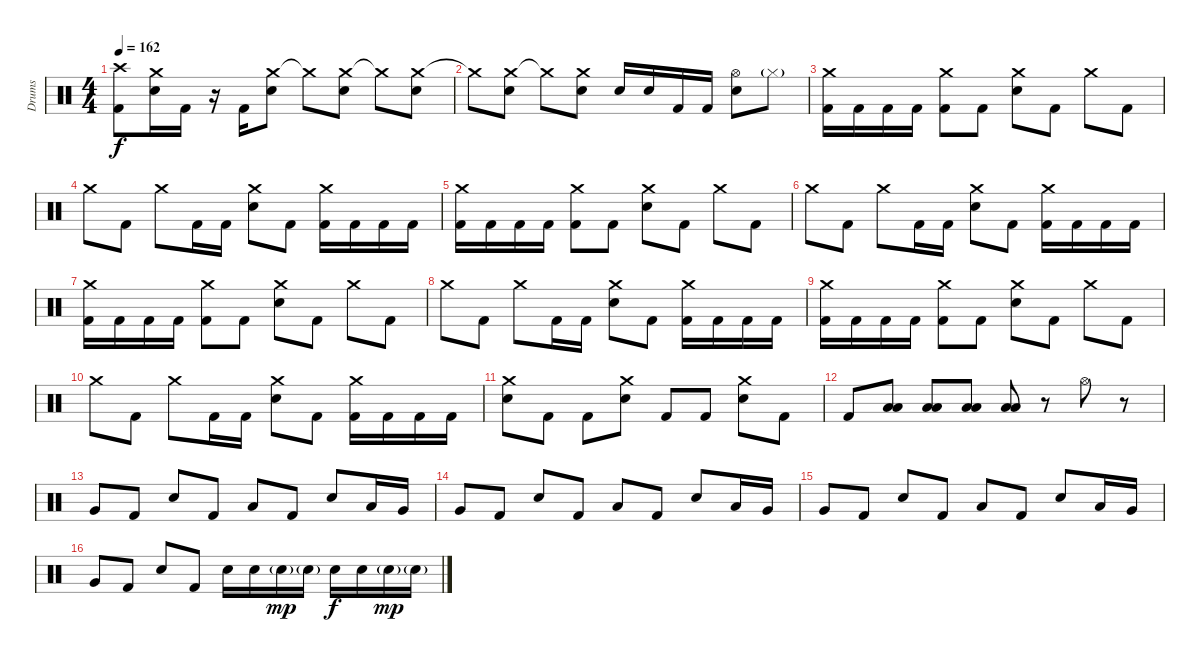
\track ("Drums" "Drums") {instrument percussion}
\staff {score}
\articulation defaults
\ts (4 4)
\tempo 162
\clef neutral
\ks c
("Crash high (hit)" "Kick (hit) 2").8{dy f} ("Crash medium (hit)" "Electric Snare (hit)").16 "Kick (hit) 2".16 r.16 "Kick (hit) 2".16 ("Crash medium (hit)" "Electric Snare (hit)").8 "Crash medium (hit)"{t}.8 ("Crash medium (hit)" "Electric Snare (hit)").8 "Crash medium (hit)"{t}.8 ("Crash medium (hit)" "Electric Snare (hit)").8 |
"Crash medium (hit)"{t}.8 ("Crash medium (hit)" "Electric Snare (hit)").8 "Crash medium (hit)"{t}.8 ("Crash medium (hit)" "Electric Snare (hit)").8 "Electric Snare (hit)".16 "Electric Snare (hit)".16 "Kick (hit) 2".16 "Kick (hit) 2".16 ("Hi-Hat (open)" "Electric Snare (hit)").8 "Hi-Hat (closed)"{g}.8 |
("Crash medium (hit)" "Kick (hit) 2").16 "Kick (hit) 2".16 "Kick (hit) 2".16 "Kick (hit) 2".16 ("Crash medium (hit)" "Kick (hit) 2").8 "Kick (hit) 2".8 ("Crash medium (hit)" "Electric Snare (hit)").8 "Kick (hit) 2".8 "Crash medium (hit)".8 "Kick (hit) 2".8 |
"Crash medium (hit)".8 "Kick (hit) 2".8 "Crash medium (hit)".8 "Kick (hit) 2".16 "Kick (hit) 2".16 ("Crash medium (hit)" "Electric Snare (hit)").8 "Kick (hit) 2".8 ("Crash medium (hit)" "Kick (hit) 2").16 "Kick (hit) 2".16 "Kick (hit) 2".16 "Kick (hit) 2".16 |
("Crash medium (hit)" "Kick (hit) 2").16 "Kick (hit) 2".16 "Kick (hit) 2".16 "Kick (hit) 2".16 ("Crash medium (hit)" "Kick (hit) 2").8 "Kick (hit) 2".8 ("Crash medium (hit)" "Electric Snare (hit)").8 "Kick (hit) 2".8 "Crash medium (hit)".8 "Kick (hit) 2".8 |
"Crash medium (hit)".8 "Kick (hit) 2".8 "Crash medium (hit)".8 "Kick (hit) 2".16 "Kick (hit) 2".16 ("Crash medium (hit)" "Electric Snare (hit)").8 "Kick (hit) 2".8 ("Crash medium (hit)" "Kick (hit) 2").16 "Kick (hit) 2".16 "Kick (hit) 2".16 "Kick (hit) 2".16 |
("Crash medium (hit)" "Kick (hit) 2").16 "Kick (hit) 2".16 "Kick (hit) 2".16 "Kick (hit) 2".16 ("Crash medium (hit)" "Kick (hit) 2").8 "Kick (hit) 2".8 ("Crash medium (hit)" "Electric Snare (hit)").8 "Kick (hit) 2".8 "Crash medium (hit)".8 "Kick (hit) 2".8 |
"Crash medium (hit)".8 "Kick (hit) 2".8 "Crash medium (hit)".8 "Kick (hit) 2".16 "Kick (hit) 2".16 ("Crash medium (hit)" "Electric Snare (hit)").8 "Kick (hit) 2".8 ("Crash medium (hit)" "Kick (hit) 2").16 "Kick (hit) 2".16 "Kick (hit) 2".16 "Kick (hit) 2".16 |
("Crash medium (hit)" "Kick (hit) 2").16 "Kick (hit) 2".16 "Kick (hit) 2".16 "Kick (hit) 2".16 ("Crash medium (hit)" "Kick (hit) 2").8 "Kick (hit) 2".8 ("Crash medium (hit)" "Electric Snare (hit)").8 "Kick (hit) 2".8 "Crash medium (hit)".8 "Kick (hit) 2".8 |
"Crash medium (hit)".8 "Kick (hit) 2".8 "Crash medium (hit)".8 "Kick (hit) 2".16 "Kick (hit) 2".16 ("Crash medium (hit)" "Electric Snare (hit)").8 "Kick (hit) 2".8 ("Crash medium (hit)" "Kick (hit) 2").16 "Kick (hit) 2".16 "Kick (hit) 2".16 "Kick (hit) 2".16 |
("Crash medium (hit)" "Electric Snare (hit)").8 "Kick (hit) 2".8 "Kick (hit) 2".8 ("Crash medium (hit)" "Electric Snare (hit)").8 "Kick (hit) 2".8 "Kick (hit) 2".8 ("Crash medium (hit)" "Electric Snare (hit)").8 "Kick (hit) 2".8 |
"Kick (hit) 2".8 ("Low Tom (hit)" "Low Floor Tom (hit)").8 ("Low Tom (hit)" "Low Floor Tom (hit)").8 ("Low Tom (hit)" "Low Floor Tom (hit)").8 ("Low Tom (hit)" "Low Floor Tom (hit)").8 r.8 "Hi-Hat (open)".8 r.8 |
"Very Low Tom (hit)".8 "Kick (hit) 2".8 "Electric Snare (hit)".8 "Kick (hit) 2".8 "Low Floor Tom (hit)".8 "Kick (hit) 2".8 "Electric Snare (hit)".8 "Low Tom (hit)".16 "Very Low Tom (hit)".16 |
"Very Low Tom (hit)".8 "Kick (hit) 2".8 "Electric Snare (hit)".8 "Kick (hit) 2".8 "Low Floor Tom (hit)".8 "Kick (hit) 2".8 "Electric Snare (hit)".8 "Low Tom (hit)".16 "Very Low Tom (hit)".16 |
"Very Low Tom (hit)".8 "Kick (hit) 2".8 "Electric Snare (hit)".8 "Kick (hit) 2".8 "Low Floor Tom (hit)".8 "Kick (hit) 2".8 "Electric Snare (hit)".8 "Low Tom (hit)".16 "Very Low Tom (hit)".16 |
"Very Low Tom (hit)".8 "Kick (hit) 2".8 "Electric Snare (hit)".8 "Kick (hit) 2".8 "Electric Snare (hit)".16 "Electric Snare (hit)".16 "Snare (hit) 2"{g}.16{dy mp} "Snare (hit) 2"{g}.16 "Electric Snare (hit)".16{dy f} "Electric Snare (hit)".16 "Snare (hit) 2"{g}.16{dy mp} "Snare (hit) 2"{g}.16
